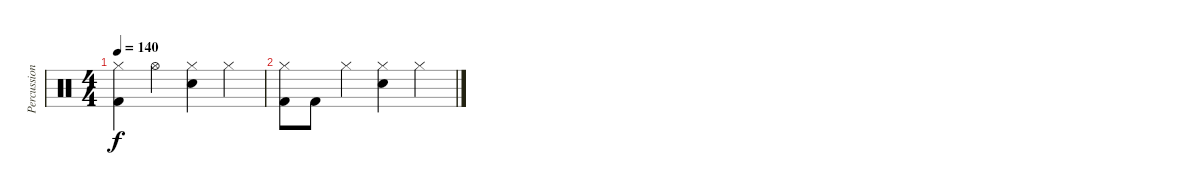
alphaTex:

\track ("Percussions" "Percussion") {instrument percussion}
\staff {score}
\articulation defaults
\ts (4 4)
\tempo 140
\clef neutral
\ks c
("Hi-Hat (closed)" "Kick (hit) 2").4{dy f} "Hi-Hat (open)".4 ("Hi-Hat (closed)" "Electric Snare (hit)").4 "Hi-Hat (closed)".4 |
("Hi-Hat (closed)" "Kick (hit) 2").8 "Kick (hit) 2".8 "Hi-Hat (closed)".4 ("Hi-Hat (closed)" "Electric Snare (hit)").4 "Hi-Hat (closed)".4
